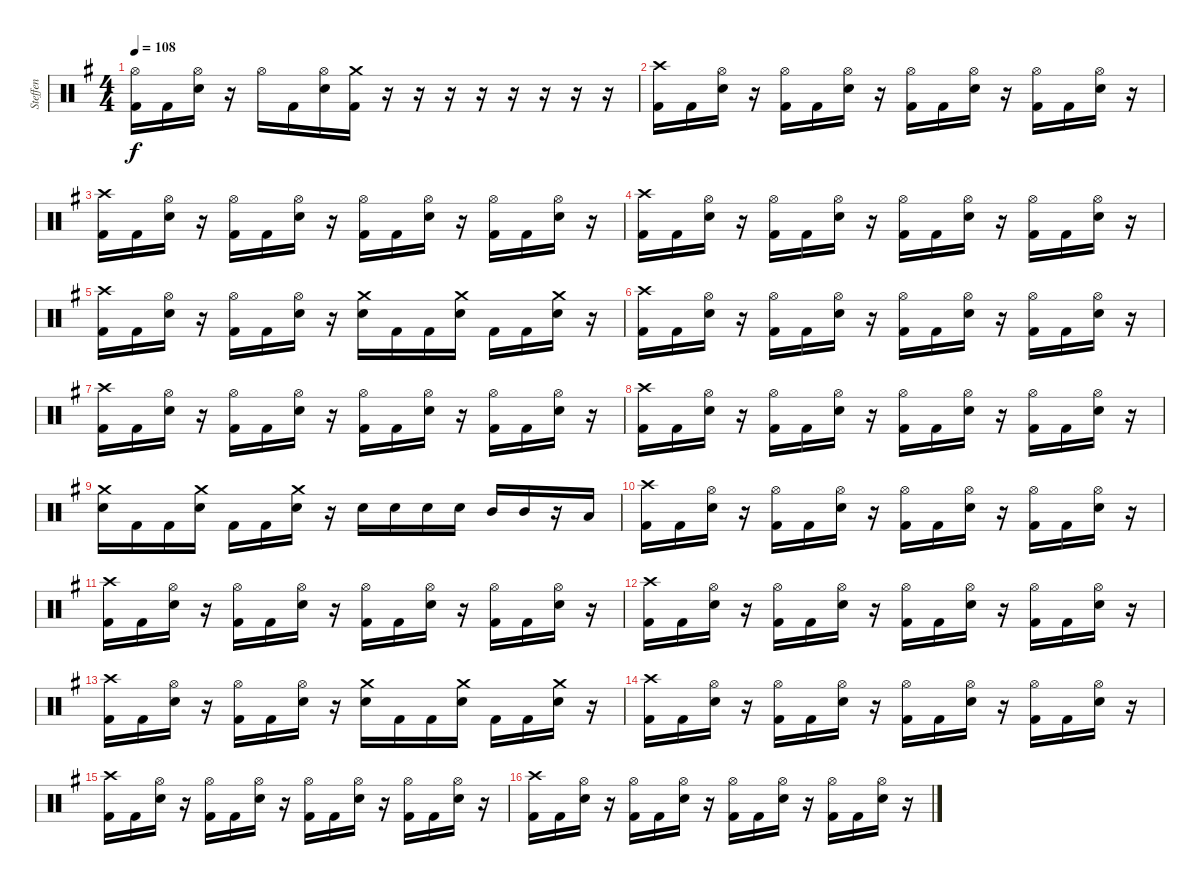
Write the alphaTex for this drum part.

\track ("Steffen" "Steffen") {instrument percussion}
\staff {score}
\articulation defaults
\ts (4 4)
\tempo 108
\clef neutral
\ks g
("Hi-Hat (open)" "Kick (hit) 2").16{dy f} "Kick (hit) 2".16 ("Hi-Hat (open)" "Electric Snare (hit)").16 r.16 "Hi-Hat (open)".16 "Kick (hit) 2".16 ("Hi-Hat (open)" "Electric Snare (hit)").16 ("Crash medium (hit)" "Kick (hit) 2").16 r.16 r.16 r.16 r.16 r.16 r.16 r.16 r.16 |
("Crash high (hit)" "Kick (hit) 2").16 "Kick (hit) 2".16 ("Hi-Hat (open)" "Electric Snare (hit)").16 r.16 ("Hi-Hat (open)" "Kick (hit) 2").16 "Kick (hit) 2".16 ("Hi-Hat (open)" "Electric Snare (hit)").16 r.16 ("Hi-Hat (open)" "Kick (hit) 2").16 "Kick (hit) 2".16 ("Hi-Hat (open)" "Electric Snare (hit)").16 r.16 ("Hi-Hat (open)" "Kick (hit) 2").16 "Kick (hit) 2".16 ("Hi-Hat (open)" "Electric Snare (hit)").16 r.16 |
("Crash high (hit)" "Kick (hit) 2").16 "Kick (hit) 2".16 ("Hi-Hat (open)" "Electric Snare (hit)").16 r.16 ("Hi-Hat (open)" "Kick (hit) 2").16 "Kick (hit) 2".16 ("Hi-Hat (open)" "Electric Snare (hit)").16 r.16 ("Hi-Hat (open)" "Kick (hit) 2").16 "Kick (hit) 2".16 ("Hi-Hat (open)" "Electric Snare (hit)").16 r.16 ("Hi-Hat (open)" "Kick (hit) 2").16 "Kick (hit) 2".16 ("Hi-Hat (open)" "Electric Snare (hit)").16 r.16 |
("Crash high (hit)" "Kick (hit) 2").16 "Kick (hit) 2".16 ("Hi-Hat (open)" "Electric Snare (hit)").16 r.16 ("Hi-Hat (open)" "Kick (hit) 2").16 "Kick (hit) 2".16 ("Hi-Hat (open)" "Electric Snare (hit)").16 r.16 ("Hi-Hat (open)" "Kick (hit) 2").16 "Kick (hit) 2".16 ("Hi-Hat (open)" "Electric Snare (hit)").16 r.16 ("Hi-Hat (open)" "Kick (hit) 2").16 "Kick (hit) 2".16 ("Hi-Hat (open)" "Electric Snare (hit)").16 r.16 |
("Crash high (hit)" "Kick (hit) 2").16 "Kick (hit) 2".16 ("Hi-Hat (open)" "Electric Snare (hit)").16 r.16 ("Hi-Hat (open)" "Kick (hit) 2").16 "Kick (hit) 2".16 ("Hi-Hat (open)" "Electric Snare (hit)").16 r.16 ("Crash medium (hit)" "Electric Snare (hit)").16 "Kick (hit) 2".16 "Kick (hit) 2".16 ("Crash medium (hit)" "Electric Snare (hit)").16 "Kick (hit) 2".16 "Kick (hit) 2".16 ("Crash medium (hit)" "Electric Snare (hit)").16 r.16 |
("Crash high (hit)" "Kick (hit) 2").16 "Kick (hit) 2".16 ("Hi-Hat (open)" "Electric Snare (hit)").16 r.16 ("Hi-Hat (open)" "Kick (hit) 2").16 "Kick (hit) 2".16 ("Hi-Hat (open)" "Electric Snare (hit)").16 r.16 ("Hi-Hat (open)" "Kick (hit) 2").16 "Kick (hit) 2".16 ("Hi-Hat (open)" "Electric Snare (hit)").16 r.16 ("Hi-Hat (open)" "Kick (hit) 2").16 "Kick (hit) 2".16 ("Hi-Hat (open)" "Electric Snare (hit)").16 r.16 |
("Crash high (hit)" "Kick (hit) 2").16 "Kick (hit) 2".16 ("Hi-Hat (open)" "Electric Snare (hit)").16 r.16 ("Hi-Hat (open)" "Kick (hit) 2").16 "Kick (hit) 2".16 ("Hi-Hat (open)" "Electric Snare (hit)").16 r.16 ("Hi-Hat (open)" "Kick (hit) 2").16 "Kick (hit) 2".16 ("Hi-Hat (open)" "Electric Snare (hit)").16 r.16 ("Hi-Hat (open)" "Kick (hit) 2").16 "Kick (hit) 2".16 ("Hi-Hat (open)" "Electric Snare (hit)").16 r.16 |
("Crash high (hit)" "Kick (hit) 2").16 "Kick (hit) 2".16 ("Hi-Hat (open)" "Electric Snare (hit)").16 r.16 ("Hi-Hat (open)" "Kick (hit) 2").16 "Kick (hit) 2".16 ("Hi-Hat (open)" "Electric Snare (hit)").16 r.16 ("Hi-Hat (open)" "Kick (hit) 2").16 "Kick (hit) 2".16 ("Hi-Hat (open)" "Electric Snare (hit)").16 r.16 ("Hi-Hat (open)" "Kick (hit) 2").16 "Kick (hit) 2".16 ("Hi-Hat (open)" "Electric Snare (hit)").16 r.16 |
("Crash medium (hit)" "Electric Snare (hit)").16 "Kick (hit) 2".16 "Kick (hit) 2".16 ("Crash medium (hit)" "Electric Snare (hit)").16 "Kick (hit) 2".16 "Kick (hit) 2".16 ("Crash medium (hit)" "Electric Snare (hit)").16 r.16 "Electric Snare (hit)".16 "Electric Snare (hit)".16 "Electric Snare (hit)".16 "Electric Snare (hit)".16 "Mid Tom (hit)".16 "Mid Tom (hit)".16 r.16 "Low Tom (hit)".16 |
("Crash high (hit)" "Kick (hit) 2").16 "Kick (hit) 2".16 ("Hi-Hat (open)" "Electric Snare (hit)").16 r.16 ("Hi-Hat (open)" "Kick (hit) 2").16 "Kick (hit) 2".16 ("Hi-Hat (open)" "Electric Snare (hit)").16 r.16 ("Hi-Hat (open)" "Kick (hit) 2").16 "Kick (hit) 2".16 ("Hi-Hat (open)" "Electric Snare (hit)").16 r.16 ("Hi-Hat (open)" "Kick (hit) 2").16 "Kick (hit) 2".16 ("Hi-Hat (open)" "Electric Snare (hit)").16 r.16 |
("Crash high (hit)" "Kick (hit) 2").16 "Kick (hit) 2".16 ("Hi-Hat (open)" "Electric Snare (hit)").16 r.16 ("Hi-Hat (open)" "Kick (hit) 2").16 "Kick (hit) 2".16 ("Hi-Hat (open)" "Electric Snare (hit)").16 r.16 ("Hi-Hat (open)" "Kick (hit) 2").16 "Kick (hit) 2".16 ("Hi-Hat (open)" "Electric Snare (hit)").16 r.16 ("Hi-Hat (open)" "Kick (hit) 2").16 "Kick (hit) 2".16 ("Hi-Hat (open)" "Electric Snare (hit)").16 r.16 |
("Crash high (hit)" "Kick (hit) 2").16 "Kick (hit) 2".16 ("Hi-Hat (open)" "Electric Snare (hit)").16 r.16 ("Hi-Hat (open)" "Kick (hit) 2").16 "Kick (hit) 2".16 ("Hi-Hat (open)" "Electric Snare (hit)").16 r.16 ("Hi-Hat (open)" "Kick (hit) 2").16 "Kick (hit) 2".16 ("Hi-Hat (open)" "Electric Snare (hit)").16 r.16 ("Hi-Hat (open)" "Kick (hit) 2").16 "Kick (hit) 2".16 ("Hi-Hat (open)" "Electric Snare (hit)").16 r.16 |
("Crash high (hit)" "Kick (hit) 2").16 "Kick (hit) 2".16 ("Hi-Hat (open)" "Electric Snare (hit)").16 r.16 ("Hi-Hat (open)" "Kick (hit) 2").16 "Kick (hit) 2".16 ("Hi-Hat (open)" "Electric Snare (hit)").16 r.16 ("Crash medium (hit)" "Electric Snare (hit)").16 "Kick (hit) 2".16 "Kick (hit) 2".16 ("Crash medium (hit)" "Electric Snare (hit)").16 "Kick (hit) 2".16 "Kick (hit) 2".16 ("Crash medium (hit)" "Electric Snare (hit)").16 r.16 |
("Crash high (hit)" "Kick (hit) 2").16 "Kick (hit) 2".16 ("Hi-Hat (open)" "Electric Snare (hit)").16 r.16 ("Hi-Hat (open)" "Kick (hit) 2").16 "Kick (hit) 2".16 ("Hi-Hat (open)" "Electric Snare (hit)").16 r.16 ("Hi-Hat (open)" "Kick (hit) 2").16 "Kick (hit) 2".16 ("Hi-Hat (open)" "Electric Snare (hit)").16 r.16 ("Hi-Hat (open)" "Kick (hit) 2").16 "Kick (hit) 2".16 ("Hi-Hat (open)" "Electric Snare (hit)").16 r.16 |
("Crash high (hit)" "Kick (hit) 2").16 "Kick (hit) 2".16 ("Hi-Hat (open)" "Electric Snare (hit)").16 r.16 ("Hi-Hat (open)" "Kick (hit) 2").16 "Kick (hit) 2".16 ("Hi-Hat (open)" "Electric Snare (hit)").16 r.16 ("Hi-Hat (open)" "Kick (hit) 2").16 "Kick (hit) 2".16 ("Hi-Hat (open)" "Electric Snare (hit)").16 r.16 ("Hi-Hat (open)" "Kick (hit) 2").16 "Kick (hit) 2".16 ("Hi-Hat (open)" "Electric Snare (hit)").16 r.16 |
("Crash high (hit)" "Kick (hit) 2").16 "Kick (hit) 2".16 ("Hi-Hat (open)" "Electric Snare (hit)").16 r.16 ("Hi-Hat (open)" "Kick (hit) 2").16 "Kick (hit) 2".16 ("Hi-Hat (open)" "Electric Snare (hit)").16 r.16 ("Hi-Hat (open)" "Kick (hit) 2").16 "Kick (hit) 2".16 ("Hi-Hat (open)" "Electric Snare (hit)").16 r.16 ("Hi-Hat (open)" "Kick (hit) 2").16 "Kick (hit) 2".16 ("Hi-Hat (open)" "Electric Snare (hit)").16 r.16
